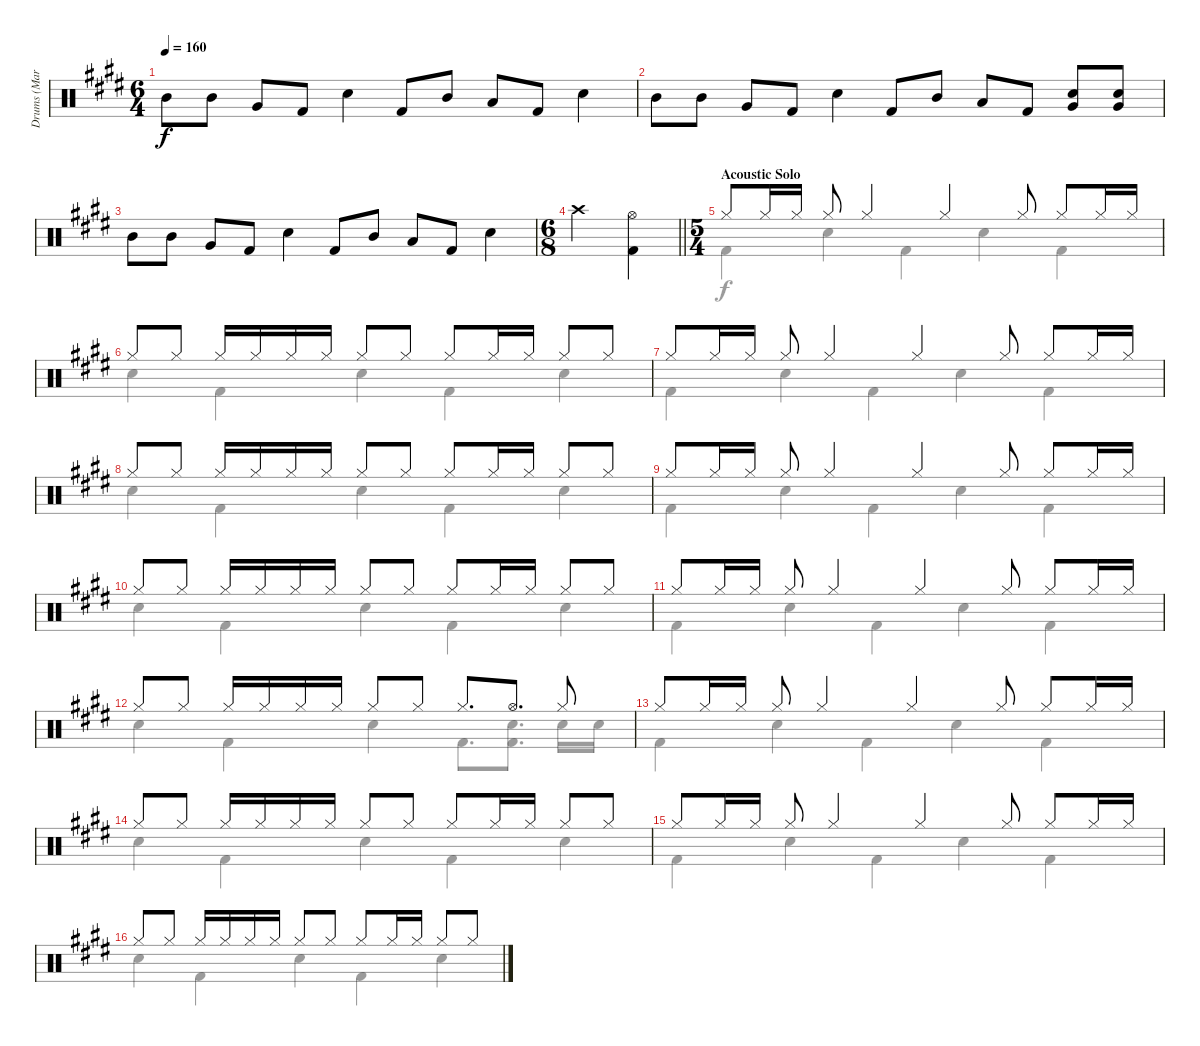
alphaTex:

\track ("Drums (Mark Zonder)" "Drums (Mar") {instrument percussion}
\staff {score}
\articulation defaults
\voice
\ts (6 4)
\tempo 160
\clef neutral
\ks c#minor "Mid Tom (hit)".8{dy f} "Mid Tom (hit)".8 "Very Low Tom (hit)".8 "Kick (hit) 2".8 "Electric Snare (hit)".4 "Kick (hit) 2".8 "Mid Tom (hit)".8 "Low Tom (hit)".8 "Kick (hit) 2".8 "Electric Snare (hit)".4
|
"Mid Tom (hit)".8 "Mid Tom (hit)".8 "Very Low Tom (hit)".8 "Kick (hit) 2".8 "Electric Snare (hit)".4 "Kick (hit) 2".8 "Mid Tom (hit)".8 "Low Tom (hit)".8 "Kick (hit) 2".8 ("Electric Snare (hit)" "Very Low Tom (hit)").8 ("Electric Snare (hit)" "Very Low Tom (hit)").8 |
"Mid Tom (hit)".8 "Mid Tom (hit)".8 "Very Low Tom (hit)".8 "Kick (hit) 2".8 "Electric Snare (hit)".4 "Kick (hit) 2".8 "Mid Tom (hit)".8 "Low Tom (hit)".8 "Kick (hit) 2".8 "Electric Snare (hit)".4 |
\ts (6 8)
\barLineRight lightlight "Crash high (hit)".2
("Hi-Hat (open)" "Kick (hit) 2").4 |
\ts (5 4)
\section ("" "Acoustic Solo")
"Hi-Hat (closed)".8 "Hi-Hat (closed)".16 "Hi-Hat (closed)".16 "Hi-Hat (closed)".8 "Hi-Hat (closed)".4 "Hi-Hat (closed)".4 "Hi-Hat (closed)".8 "Hi-Hat (closed)".8 "Hi-Hat (closed)".16 "Hi-Hat (closed)".16 |
"Hi-Hat (closed)".8 "Hi-Hat (closed)".8 "Hi-Hat (closed)".16 "Hi-Hat (closed)".16 "Hi-Hat (closed)".16 "Hi-Hat (closed)".16 "Hi-Hat (closed)".8 "Hi-Hat (closed)".8 "Hi-Hat (closed)".8 "Hi-Hat (closed)".16 "Hi-Hat (closed)".16 "Hi-Hat (closed)".8 "Hi-Hat (closed)".8 |
"Hi-Hat (closed)".8 "Hi-Hat (closed)".16 "Hi-Hat (closed)".16 "Hi-Hat (closed)".8 "Hi-Hat (closed)".4 "Hi-Hat (closed)".4 "Hi-Hat (closed)".8 "Hi-Hat (closed)".8 "Hi-Hat (closed)".16 "Hi-Hat (closed)".16 |
"Hi-Hat (closed)".8 "Hi-Hat (closed)".8 "Hi-Hat (closed)".16 "Hi-Hat (closed)".16 "Hi-Hat (closed)".16 "Hi-Hat (closed)".16 "Hi-Hat (closed)".8 "Hi-Hat (closed)".8 "Hi-Hat (closed)".8 "Hi-Hat (closed)".16 "Hi-Hat (closed)".16 "Hi-Hat (closed)".8 "Hi-Hat (closed)".8 |
"Hi-Hat (closed)".8 "Hi-Hat (closed)".16 "Hi-Hat (closed)".16 "Hi-Hat (closed)".8 "Hi-Hat (closed)".4 "Hi-Hat (closed)".4 "Hi-Hat (closed)".8 "Hi-Hat (closed)".8 "Hi-Hat (closed)".16 "Hi-Hat (closed)".16 |
"Hi-Hat (closed)".8 "Hi-Hat (closed)".8 "Hi-Hat (closed)".16 "Hi-Hat (closed)".16 "Hi-Hat (closed)".16 "Hi-Hat (closed)".16 "Hi-Hat (closed)".8 "Hi-Hat (closed)".8 "Hi-Hat (closed)".8 "Hi-Hat (closed)".16 "Hi-Hat (closed)".16 "Hi-Hat (closed)".8 "Hi-Hat (closed)".8 |
"Hi-Hat (closed)".8 "Hi-Hat (closed)".16 "Hi-Hat (closed)".16 "Hi-Hat (closed)".8 "Hi-Hat (closed)".4 "Hi-Hat (closed)".4 "Hi-Hat (closed)".8 "Hi-Hat (closed)".8 "Hi-Hat (closed)".16 "Hi-Hat (closed)".16 |
"Hi-Hat (closed)".8 "Hi-Hat (closed)".8 "Hi-Hat (closed)".16 "Hi-Hat (closed)".16 "Hi-Hat (closed)".16 "Hi-Hat (closed)".16 "Hi-Hat (closed)".8 "Hi-Hat (closed)".8 "Hi-Hat (closed)".8{d} "Hi-Hat (open)".8{d} "Hi-Hat (closed)".8 |
"Hi-Hat (closed)".8 "Hi-Hat (closed)".16 "Hi-Hat (closed)".16 "Hi-Hat (closed)".8 "Hi-Hat (closed)".4 "Hi-Hat (closed)".4 "Hi-Hat (closed)".8 "Hi-Hat (closed)".8 "Hi-Hat (closed)".16 "Hi-Hat (closed)".16 |
"Hi-Hat (closed)".8 "Hi-Hat (closed)".8 "Hi-Hat (closed)".16 "Hi-Hat (closed)".16 "Hi-Hat (closed)".16 "Hi-Hat (closed)".16 "Hi-Hat (closed)".8 "Hi-Hat (closed)".8 "Hi-Hat (closed)".8 "Hi-Hat (closed)".16 "Hi-Hat (closed)".16 "Hi-Hat (closed)".8 "Hi-Hat (closed)".8 |
"Hi-Hat (closed)".8 "Hi-Hat (closed)".16 "Hi-Hat (closed)".16 "Hi-Hat (closed)".8 "Hi-Hat (closed)".4 "Hi-Hat (closed)".4 "Hi-Hat (closed)".8 "Hi-Hat (closed)".8 "Hi-Hat (closed)".16 "Hi-Hat (closed)".16 |
"Hi-Hat (closed)".8 "Hi-Hat (closed)".8 "Hi-Hat (closed)".16 "Hi-Hat (closed)".16 "Hi-Hat (closed)".16 "Hi-Hat (closed)".16 "Hi-Hat (closed)".8 "Hi-Hat (closed)".8 "Hi-Hat (closed)".8 "Hi-Hat (closed)".16 "Hi-Hat (closed)".16 "Hi-Hat (closed)".8 "Hi-Hat (closed)".8
\voice
\clef neutral
\ottava regular
\simile none
\ks c#minor
|
|
|
\barLineRight lightlight
|
"Kick (hit) 2".4 "Electric Snare (hit)".4 "Kick (hit) 2".4 "Electric Snare (hit)".4 "Kick (hit) 2".4 |
"Electric Snare (hit)".4 "Kick (hit) 2".4 "Electric Snare (hit)".4 "Kick (hit) 2".4 "Electric Snare (hit)".4 |
"Kick (hit) 2".4 "Electric Snare (hit)".4 "Kick (hit) 2".4 "Electric Snare (hit)".4 "Kick (hit) 2".4 |
"Electric Snare (hit)".4 "Kick (hit) 2".4 "Electric Snare (hit)".4 "Kick (hit) 2".4 "Electric Snare (hit)".4 |
"Kick (hit) 2".4 "Electric Snare (hit)".4 "Kick (hit) 2".4 "Electric Snare (hit)".4 "Kick (hit) 2".4 |
"Electric Snare (hit)".4 "Kick (hit) 2".4 "Electric Snare (hit)".4 "Kick (hit) 2".4 "Electric Snare (hit)".4 |
"Kick (hit) 2".4 "Electric Snare (hit)".4 "Kick (hit) 2".4 "Electric Snare (hit)".4 "Kick (hit) 2".4 |
"Electric Snare (hit)".4 "Kick (hit) 2".4 "Electric Snare (hit)".4 "Kick (hit) 2".8{d} ("Electric Snare (hit)" "Kick (hit) 2").8{d} "Electric Snare (hit)".16 "Electric Snare (hit)".16 |
"Kick (hit) 2".4 "Electric Snare (hit)".4 "Kick (hit) 2".4 "Electric Snare (hit)".4 "Kick (hit) 2".4 |
"Electric Snare (hit)".4 "Kick (hit) 2".4 "Electric Snare (hit)".4 "Kick (hit) 2".4 "Electric Snare (hit)".4 |
"Kick (hit) 2".4 "Electric Snare (hit)".4 "Kick (hit) 2".4 "Electric Snare (hit)".4 "Kick (hit) 2".4 |
"Electric Snare (hit)".4 "Kick (hit) 2".4 "Electric Snare (hit)".4 "Kick (hit) 2".4 "Electric Snare (hit)".4
